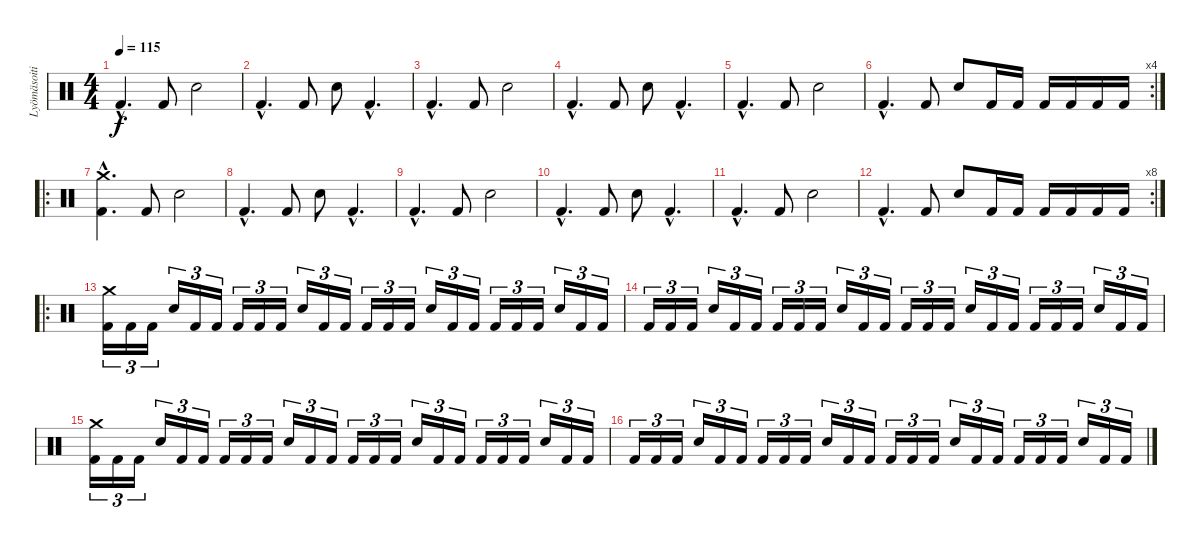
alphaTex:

\track ("Lyömäsoitin" "Lyömäsoiti") {instrument percussion}
\staff {score}
\articulation defaults
\ts (4 4)
\tempo 115
\clef neutral
\ks c "Kick (hit) 2"{hac}.4{d dy f} "Kick (hit) 2".8 "Snare (hit) 2".2
|
"Kick (hit) 2"{hac}.4{d} "Kick (hit) 2".8 "Snare (hit) 2".8 "Kick (hit) 2"{hac}.4{d} |
"Kick (hit) 2"{hac}.4{d} "Kick (hit) 2".8 "Snare (hit) 2".2 |
"Kick (hit) 2"{hac}.4{d} "Kick (hit) 2".8 "Snare (hit) 2".8 "Kick (hit) 2"{hac}.4{d} |
"Kick (hit) 2"{hac}.4{d} "Kick (hit) 2".8 "Snare (hit) 2".2 |
\rc 4 "Kick (hit) 2"{hac}.4{d} "Kick (hit) 2".8 "Snare (hit) 2".8 "Kick (hit) 2".16 "Kick (hit) 2".16 "Kick (hit) 2".16 "Kick (hit) 2".16 "Kick (hit) 2".16 "Kick (hit) 2".16
|
\ro
("Crash medium (hit)"{hac} "Kick (hit) 2"{hac}).4{d} "Kick (hit) 2".8 "Snare (hit) 2".2 |
"Kick (hit) 2"{hac}.4{d} "Kick (hit) 2".8 "Snare (hit) 2".8 "Kick (hit) 2"{hac}.4{d} |
"Kick (hit) 2"{hac}.4{d} "Kick (hit) 2".8 "Snare (hit) 2".2 |
"Kick (hit) 2"{hac}.4{d} "Kick (hit) 2".8 "Snare (hit) 2".8 "Kick (hit) 2"{hac}.4{d} |
"Kick (hit) 2"{hac}.4{d} "Kick (hit) 2".8 "Snare (hit) 2".2 |
\rc 8 "Kick (hit) 2"{hac}.4{d} "Kick (hit) 2".8 "Snare (hit) 2".8 "Kick (hit) 2".16 "Kick (hit) 2".16 "Kick (hit) 2".16 "Kick (hit) 2".16 "Kick (hit) 2".16 "Kick (hit) 2".16
|
\ro
("Crash medium (hit)" "Kick (hit) 2").16{tu (3 2)} "Kick (hit) 2".16{tu (3 2)} "Kick (hit) 2".16{tu (3 2)} "Snare (hit) 2".16{tu (3 2)} "Kick (hit) 2".16{tu (3 2)} "Kick (hit) 2".16{tu (3 2)} "Kick (hit) 2".16{tu (3 2)} "Kick (hit) 2".16{tu (3 2)} "Kick (hit) 2".16{tu (3 2)} "Snare (hit) 2".16{tu (3 2)} "Kick (hit) 2".16{tu (3 2)} "Kick (hit) 2".16{tu (3 2)} "Kick (hit) 2".16{tu (3 2)} "Kick (hit) 2".16{tu (3 2)} "Kick (hit) 2".16{tu (3 2)} "Snare (hit) 2".16{tu (3 2)} "Kick (hit) 2".16{tu (3 2)} "Kick (hit) 2".16{tu (3 2)} "Kick (hit) 2".16{tu (3 2)} "Kick (hit) 2".16{tu (3 2)} "Kick (hit) 2".16{tu (3 2)} "Snare (hit) 2".16{tu (3 2)} "Kick (hit) 2".16{tu (3 2)} "Kick (hit) 2".16{tu (3 2)} |
"Kick (hit) 2".16{tu (3 2)} "Kick (hit) 2".16{tu (3 2)} "Kick (hit) 2".16{tu (3 2)} "Snare (hit) 2".16{tu (3 2)} "Kick (hit) 2".16{tu (3 2)} "Kick (hit) 2".16{tu (3 2)} "Kick (hit) 2".16{tu (3 2)} "Kick (hit) 2".16{tu (3 2)} "Kick (hit) 2".16{tu (3 2)} "Snare (hit) 2".16{tu (3 2)} "Kick (hit) 2".16{tu (3 2)} "Kick (hit) 2".16{tu (3 2)} "Kick (hit) 2".16{tu (3 2)} "Kick (hit) 2".16{tu (3 2)} "Kick (hit) 2".16{tu (3 2)} "Snare (hit) 2".16{tu (3 2)} "Kick (hit) 2".16{tu (3 2)} "Kick (hit) 2".16{tu (3 2)} "Kick (hit) 2".16{tu (3 2)} "Kick (hit) 2".16{tu (3 2)} "Kick (hit) 2".16{tu (3 2)} "Snare (hit) 2".16{tu (3 2)} "Kick (hit) 2".16{tu (3 2)} "Kick (hit) 2".16{tu (3 2)} |
("Crash medium (hit)" "Kick (hit) 2").16{tu (3 2)} "Kick (hit) 2".16{tu (3 2)} "Kick (hit) 2".16{tu (3 2)} "Snare (hit) 2".16{tu (3 2)} "Kick (hit) 2".16{tu (3 2)} "Kick (hit) 2".16{tu (3 2)} "Kick (hit) 2".16{tu (3 2)} "Kick (hit) 2".16{tu (3 2)} "Kick (hit) 2".16{tu (3 2)} "Snare (hit) 2".16{tu (3 2)} "Kick (hit) 2".16{tu (3 2)} "Kick (hit) 2".16{tu (3 2)} "Kick (hit) 2".16{tu (3 2)} "Kick (hit) 2".16{tu (3 2)} "Kick (hit) 2".16{tu (3 2)} "Snare (hit) 2".16{tu (3 2)} "Kick (hit) 2".16{tu (3 2)} "Kick (hit) 2".16{tu (3 2)} "Kick (hit) 2".16{tu (3 2)} "Kick (hit) 2".16{tu (3 2)} "Kick (hit) 2".16{tu (3 2)} "Snare (hit) 2".16{tu (3 2)} "Kick (hit) 2".16{tu (3 2)} "Kick (hit) 2".16{tu (3 2)} |
"Kick (hit) 2".16{tu (3 2)} "Kick (hit) 2".16{tu (3 2)} "Kick (hit) 2".16{tu (3 2)} "Snare (hit) 2".16{tu (3 2)} "Kick (hit) 2".16{tu (3 2)} "Kick (hit) 2".16{tu (3 2)} "Kick (hit) 2".16{tu (3 2)} "Kick (hit) 2".16{tu (3 2)} "Kick (hit) 2".16{tu (3 2)} "Snare (hit) 2".16{tu (3 2)} "Kick (hit) 2".16{tu (3 2)} "Kick (hit) 2".16{tu (3 2)} "Kick (hit) 2".16{tu (3 2)} "Kick (hit) 2".16{tu (3 2)} "Kick (hit) 2".16{tu (3 2)} "Snare (hit) 2".16{tu (3 2)} "Kick (hit) 2".16{tu (3 2)} "Kick (hit) 2".16{tu (3 2)} "Kick (hit) 2".16{tu (3 2)} "Kick (hit) 2".16{tu (3 2)} "Kick (hit) 2".16{tu (3 2)} "Snare (hit) 2".16{tu (3 2)} "Kick (hit) 2".16{tu (3 2)} "Kick (hit) 2".16{tu (3 2)}
